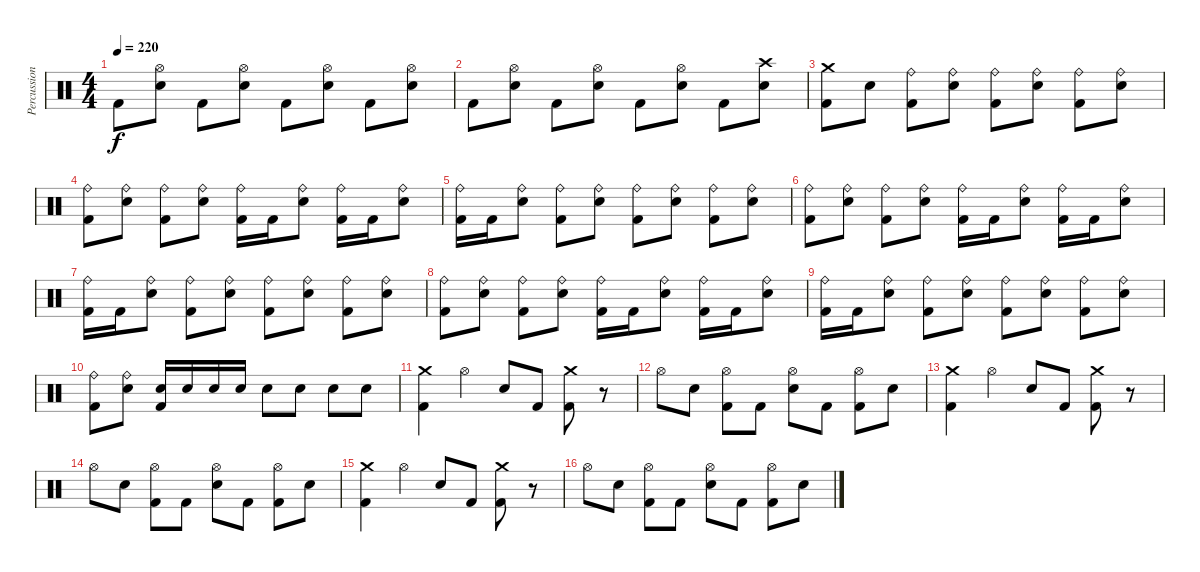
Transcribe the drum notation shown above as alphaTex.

\track ("Percussion (Dan Wilding)" "Percussion") {instrument percussion}
\staff {score}
\articulation defaults
\ts (4 4)
\tempo 220
\clef neutral
\ks c "Kick (hit) 2".8{dy f}
("Hi-Hat (open)" "Electric Snare (hit)").8 "Kick (hit) 2".8 ("Hi-Hat (open)" "Electric Snare (hit)").8 "Kick (hit) 2".8 ("Hi-Hat (open)" "Electric Snare (hit)").8 "Kick (hit) 2".8 ("Hi-Hat (open)" "Electric Snare (hit)").8 |
"Kick (hit) 2".8 ("Hi-Hat (open)" "Electric Snare (hit)").8 "Kick (hit) 2".8 ("Hi-Hat (open)" "Electric Snare (hit)").8 "Kick (hit) 2".8 ("Hi-Hat (open)" "Electric Snare (hit)").8 "Kick (hit) 2".8 ("Crash high (hit)" "Electric Snare (hit)").8 |
("Crash medium (hit)" "Kick (hit) 2").8 "Electric Snare (hit)".8 ("Ride (bell)" "Kick (hit) 2").8 ("Ride (bell)" "Electric Snare (hit)").8 ("Ride (bell)" "Kick (hit) 2").8 ("Ride (bell)" "Electric Snare (hit)").8 ("Ride (bell)" "Kick (hit) 2").8 ("Ride (bell)" "Electric Snare (hit)").8 |
("Ride (bell)" "Kick (hit) 2").8 ("Ride (bell)" "Electric Snare (hit)").8 ("Ride (bell)" "Kick (hit) 2").8 ("Ride (bell)" "Electric Snare (hit)").8 ("Ride (bell)" "Kick (hit) 2").16 "Kick (hit) 2".16 ("Ride (bell)" "Electric Snare (hit)").8 ("Ride (bell)" "Kick (hit) 2").16 "Kick (hit) 2".16 ("Ride (bell)" "Electric Snare (hit)").8 |
("Ride (bell)" "Kick (hit) 2").16 "Kick (hit) 2".16 ("Ride (bell)" "Electric Snare (hit)").8 ("Ride (bell)" "Kick (hit) 2").8 ("Ride (bell)" "Electric Snare (hit)").8 ("Ride (bell)" "Kick (hit) 2").8 ("Ride (bell)" "Electric Snare (hit)").8 ("Ride (bell)" "Kick (hit) 2").8 ("Ride (bell)" "Electric Snare (hit)").8 |
("Ride (bell)" "Kick (hit) 2").8 ("Ride (bell)" "Electric Snare (hit)").8 ("Ride (bell)" "Kick (hit) 2").8 ("Ride (bell)" "Electric Snare (hit)").8 ("Ride (bell)" "Kick (hit) 2").16 "Kick (hit) 2".16 ("Ride (bell)" "Electric Snare (hit)").8 ("Ride (bell)" "Kick (hit) 2").16 "Kick (hit) 2".16 ("Ride (bell)" "Electric Snare (hit)").8 |
("Ride (bell)" "Kick (hit) 2").16 "Kick (hit) 2".16 ("Ride (bell)" "Electric Snare (hit)").8 ("Ride (bell)" "Kick (hit) 2").8 ("Ride (bell)" "Electric Snare (hit)").8 ("Ride (bell)" "Kick (hit) 2").8 ("Ride (bell)" "Electric Snare (hit)").8 ("Ride (bell)" "Kick (hit) 2").8 ("Ride (bell)" "Electric Snare (hit)").8 |
("Ride (bell)" "Kick (hit) 2").8 ("Ride (bell)" "Electric Snare (hit)").8 ("Ride (bell)" "Kick (hit) 2").8 ("Ride (bell)" "Electric Snare (hit)").8 ("Ride (bell)" "Kick (hit) 2").16 "Kick (hit) 2".16 ("Ride (bell)" "Electric Snare (hit)").8 ("Ride (bell)" "Kick (hit) 2").16 "Kick (hit) 2".16 ("Ride (bell)" "Electric Snare (hit)").8 |
("Ride (bell)" "Kick (hit) 2").16 "Kick (hit) 2".16 ("Ride (bell)" "Electric Snare (hit)").8 ("Ride (bell)" "Kick (hit) 2").8 ("Ride (bell)" "Electric Snare (hit)").8 ("Ride (bell)" "Kick (hit) 2").8 ("Ride (bell)" "Electric Snare (hit)").8 ("Ride (bell)" "Kick (hit) 2").8 ("Ride (bell)" "Electric Snare (hit)").8 |
("Ride (bell)" "Kick (hit) 2").8 ("Ride (bell)" "Electric Snare (hit)").8 ("Electric Snare (hit)" "Kick (hit) 2").16 "Electric Snare (hit)".16 "Electric Snare (hit)".16 "Electric Snare (hit)".16 "Electric Snare (hit)".8 "Electric Snare (hit)".8 "Electric Snare (hit)".8 "Electric Snare (hit)".8 |
("Crash medium (hit)" "Kick (hit) 2").4 "Hi-Hat (open)".4 "Electric Snare (hit)".8 "Kick (hit) 2".8 ("Crash medium (hit)" "Kick (hit) 2").8 r.8 |
"Hi-Hat (open)".8 "Electric Snare (hit)".8 ("Hi-Hat (open)" "Kick (hit) 2").8 "Kick (hit) 2".8 ("Hi-Hat (open)" "Electric Snare (hit)").8 "Kick (hit) 2".8 ("Hi-Hat (open)" "Kick (hit) 2").8 "Electric Snare (hit)".8 |
("Crash medium (hit)" "Kick (hit) 2").4 "Hi-Hat (open)".4 "Electric Snare (hit)".8 "Kick (hit) 2".8 ("Crash medium (hit)" "Kick (hit) 2").8 r.8 |
"Hi-Hat (open)".8 "Electric Snare (hit)".8 ("Hi-Hat (open)" "Kick (hit) 2").8 "Kick (hit) 2".8 ("Hi-Hat (open)" "Electric Snare (hit)").8 "Kick (hit) 2".8 ("Hi-Hat (open)" "Kick (hit) 2").8 "Electric Snare (hit)".8 |
("Crash medium (hit)" "Kick (hit) 2").4 "Hi-Hat (open)".4 "Electric Snare (hit)".8 "Kick (hit) 2".8 ("Crash medium (hit)" "Kick (hit) 2").8 r.8 |
"Hi-Hat (open)".8 "Electric Snare (hit)".8 ("Hi-Hat (open)" "Kick (hit) 2").8 "Kick (hit) 2".8 ("Hi-Hat (open)" "Electric Snare (hit)").8 "Kick (hit) 2".8 ("Hi-Hat (open)" "Kick (hit) 2").8 "Electric Snare (hit)".8
